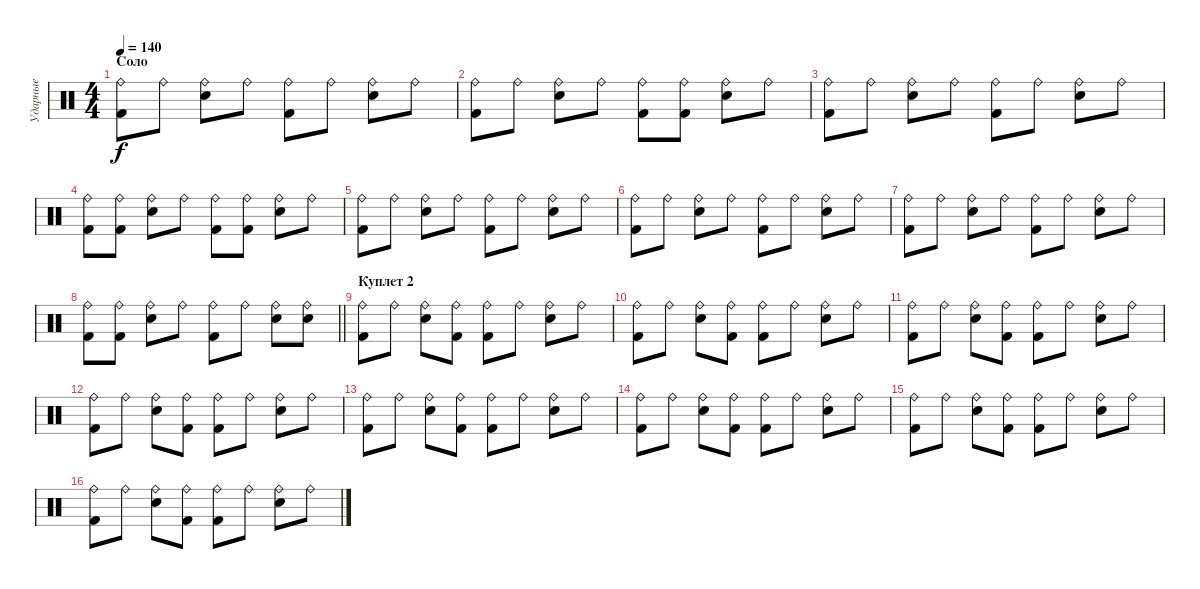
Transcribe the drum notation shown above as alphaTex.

\track ("Ударные" "Ударные") {solo instrument percussion}
\staff {score}
\articulation defaults
\ts (4 4)
\section ("" "Соло")
\tempo 140
\clef neutral
\ks c
("Ride (bell)" "Kick (hit) 2").8{dy f} "Ride (bell)".8 ("Ride (bell)" "Electric Snare (hit)").8 "Ride (bell)".8 ("Ride (bell)" "Kick (hit) 2").8 "Ride (bell)".8 ("Ride (bell)" "Electric Snare (hit)").8 "Ride (bell)".8 |
("Ride (bell)" "Kick (hit) 2").8 "Ride (bell)".8 ("Ride (bell)" "Electric Snare (hit)").8 "Ride (bell)".8 ("Ride (bell)" "Kick (hit) 2").8 ("Ride (bell)" "Kick (hit) 2").8 ("Ride (bell)" "Electric Snare (hit)").8 "Ride (bell)".8 |
("Ride (bell)" "Kick (hit) 2").8 "Ride (bell)".8 ("Ride (bell)" "Electric Snare (hit)").8 "Ride (bell)".8 ("Ride (bell)" "Kick (hit) 2").8 "Ride (bell)".8 ("Ride (bell)" "Electric Snare (hit)").8 "Ride (bell)".8 |
("Ride (bell)" "Kick (hit) 2").8 ("Ride (bell)" "Kick (hit) 2").8 ("Ride (bell)" "Electric Snare (hit)").8 "Ride (bell)".8 ("Ride (bell)" "Kick (hit) 2").8 ("Ride (bell)" "Kick (hit) 2").8 ("Ride (bell)" "Electric Snare (hit)").8 "Ride (bell)".8 |
("Ride (bell)" "Kick (hit) 2").8 "Ride (bell)".8 ("Ride (bell)" "Electric Snare (hit)").8 "Ride (bell)".8 ("Ride (bell)" "Kick (hit) 2").8 "Ride (bell)".8 ("Ride (bell)" "Electric Snare (hit)").8 "Ride (bell)".8 |
("Ride (bell)" "Kick (hit) 2").8 "Ride (bell)".8 ("Ride (bell)" "Electric Snare (hit)").8 "Ride (bell)".8 ("Ride (bell)" "Kick (hit) 2").8 "Ride (bell)".8 ("Ride (bell)" "Electric Snare (hit)").8 "Ride (bell)".8 |
("Ride (bell)" "Kick (hit) 2").8 "Ride (bell)".8 ("Ride (bell)" "Electric Snare (hit)").8 "Ride (bell)".8 ("Ride (bell)" "Kick (hit) 2").8 "Ride (bell)".8 ("Ride (bell)" "Electric Snare (hit)").8 "Ride (bell)".8 |
\barLineRight lightlight
("Ride (bell)" "Kick (hit) 2").8 ("Ride (bell)" "Kick (hit) 2").8 ("Ride (bell)" "Electric Snare (hit)").8 "Ride (bell)".8 ("Ride (bell)" "Kick (hit) 2").8 "Ride (bell)".8 ("Ride (bell)" "Electric Snare (hit)").8 ("Ride (bell)" "Electric Snare (hit)").8 |
\section ("" "Куплет 2")
("Ride (bell)" "Kick (hit) 2").8 "Ride (bell)".8 ("Ride (bell)" "Electric Snare (hit)").8 ("Ride (bell)" "Kick (hit) 2").8 ("Ride (bell)" "Kick (hit) 2").8 "Ride (bell)".8 ("Ride (bell)" "Electric Snare (hit)").8 "Ride (bell)".8 |
("Ride (bell)" "Kick (hit) 2").8 "Ride (bell)".8 ("Ride (bell)" "Electric Snare (hit)").8 ("Ride (bell)" "Kick (hit) 2").8 ("Ride (bell)" "Kick (hit) 2").8 "Ride (bell)".8 ("Ride (bell)" "Electric Snare (hit)").8 "Ride (bell)".8 |
("Ride (bell)" "Kick (hit) 2").8 "Ride (bell)".8 ("Ride (bell)" "Electric Snare (hit)").8 ("Ride (bell)" "Kick (hit) 2").8 ("Ride (bell)" "Kick (hit) 2").8 "Ride (bell)".8 ("Ride (bell)" "Electric Snare (hit)").8 "Ride (bell)".8 |
("Ride (bell)" "Kick (hit) 2").8 "Ride (bell)".8 ("Ride (bell)" "Electric Snare (hit)").8 ("Ride (bell)" "Kick (hit) 2").8 ("Ride (bell)" "Kick (hit) 2").8 "Ride (bell)".8 ("Ride (bell)" "Electric Snare (hit)").8 "Ride (bell)".8 |
("Ride (bell)" "Kick (hit) 2").8 "Ride (bell)".8 ("Ride (bell)" "Electric Snare (hit)").8 ("Ride (bell)" "Kick (hit) 2").8 ("Ride (bell)" "Kick (hit) 2").8 "Ride (bell)".8 ("Ride (bell)" "Electric Snare (hit)").8 "Ride (bell)".8 |
("Ride (bell)" "Kick (hit) 2").8 "Ride (bell)".8 ("Ride (bell)" "Electric Snare (hit)").8 ("Ride (bell)" "Kick (hit) 2").8 ("Ride (bell)" "Kick (hit) 2").8 "Ride (bell)".8 ("Ride (bell)" "Electric Snare (hit)").8 "Ride (bell)".8 |
("Ride (bell)" "Kick (hit) 2").8 "Ride (bell)".8 ("Ride (bell)" "Electric Snare (hit)").8 ("Ride (bell)" "Kick (hit) 2").8 ("Ride (bell)" "Kick (hit) 2").8 "Ride (bell)".8 ("Ride (bell)" "Electric Snare (hit)").8 "Ride (bell)".8 |
("Ride (bell)" "Kick (hit) 2").8 "Ride (bell)".8 ("Ride (bell)" "Electric Snare (hit)").8 ("Ride (bell)" "Kick (hit) 2").8 ("Ride (bell)" "Kick (hit) 2").8 "Ride (bell)".8 ("Ride (bell)" "Electric Snare (hit)").8 "Ride (bell)".8
